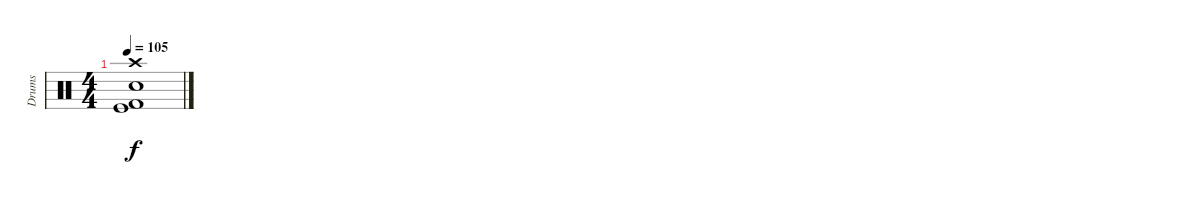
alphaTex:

\track ("Drums" "Drums") {instrument percussion}
\staff {score}
\articulation defaults
\ts (4 4)
\tempo 105
\clef neutral
\ks c
("Crash high (hit)" "Electric Snare (hit)" "Kick (hit)" "Kick (hit) 2").1{dy f}
